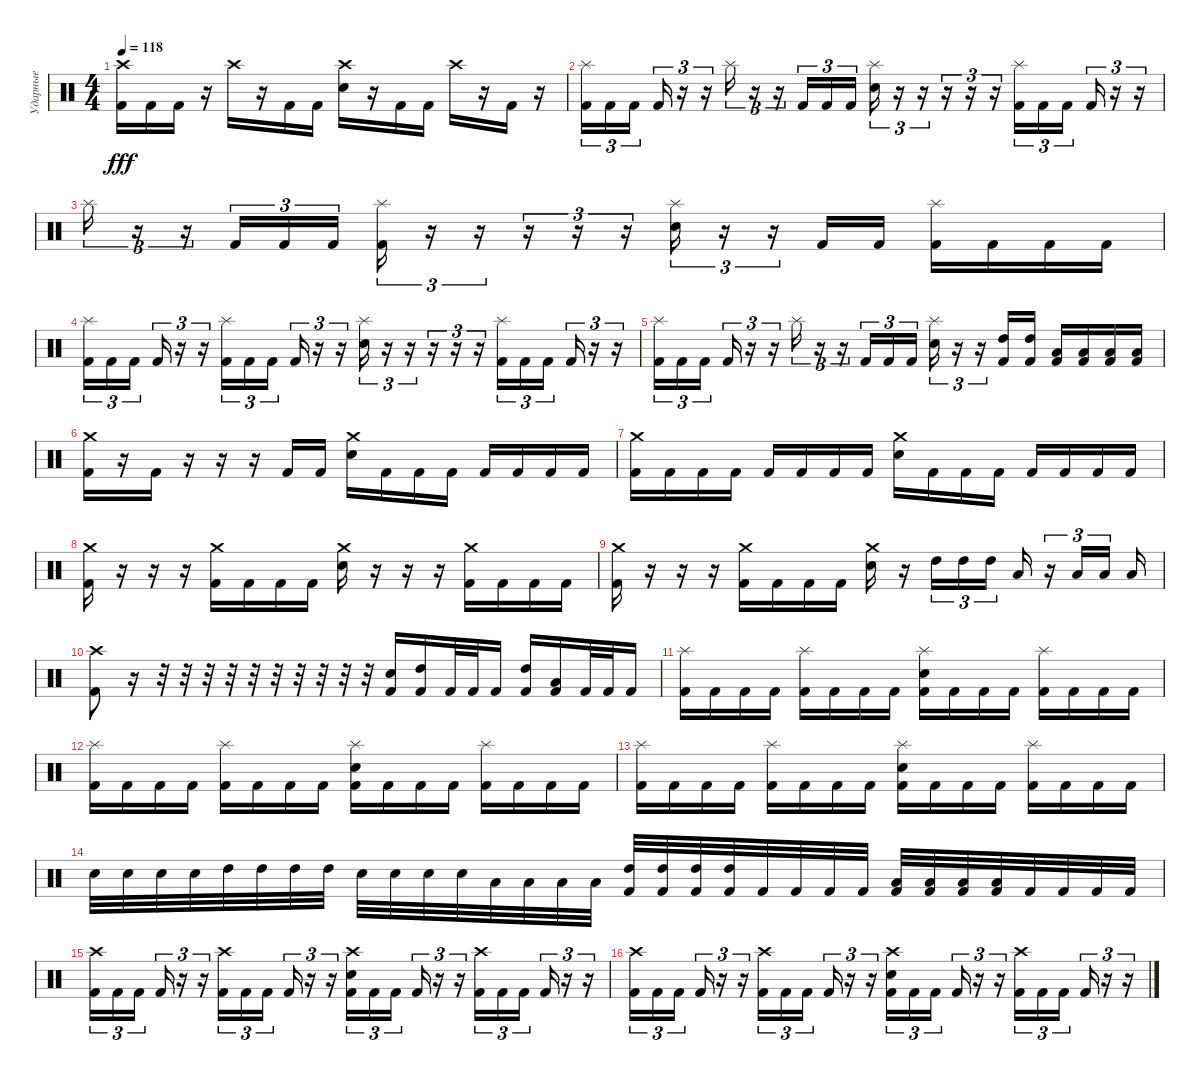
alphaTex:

\track ("Ударные" "Ударные") {instrument percussion}
\staff {score}
\articulation defaults
\ts (4 4)
\tempo 118
\clef neutral
\ks c
("Crash high (hit)" "Kick (hit) 2").16{dy fff} "Kick (hit) 2".16 "Kick (hit) 2".16 r.16 "Crash high (hit)".16 r.16 "Kick (hit) 2".16 "Kick (hit) 2".16 ("Crash high (hit)" "Electric Snare (hit)").16 r.16 "Kick (hit) 2".16 "Kick (hit) 2".16 "Crash high (hit)".16 r.16 "Kick (hit) 2".16 r.16 |
("Splash (hit)" "Kick (hit) 2").16{tu (3 2)} "Kick (hit) 2".16{tu (3 2)} "Kick (hit) 2".16{tu (3 2) beam splitsecondary} "Kick (hit) 2".16{tu (3 2)} r.16{tu (3 2)} r.16{tu (3 2)} "Splash (hit)".16{tu (3 2)} r.16{tu (3 2)} r.16{tu (3 2)} "Kick (hit) 2".16{tu (3 2)} "Kick (hit) 2".16{tu (3 2)} "Kick (hit) 2".16{tu (3 2)} ("Splash (hit)" "Electric Snare (hit)").16{tu (3 2)} r.16{tu (3 2)} r.16{tu (3 2)} r.16{tu (3 2)} r.16{tu (3 2)} r.16{tu (3 2)} ("Splash (hit)" "Kick (hit) 2").16{tu (3 2)} "Kick (hit) 2".16{tu (3 2)} "Kick (hit) 2".16{tu (3 2) beam splitsecondary} "Kick (hit) 2".16{tu (3 2)} r.16{tu (3 2)} r.16{tu (3 2)} |
"Splash (hit)".16{tu (3 2)} r.16{tu (3 2)} r.16{tu (3 2)} "Kick (hit) 2".16{tu (3 2)} "Kick (hit) 2".16{tu (3 2)} "Kick (hit) 2".16{tu (3 2)} ("Splash (hit)" "Kick (hit) 2").16{tu (3 2)} r.16{tu (3 2)} r.16{tu (3 2)} r.16{tu (3 2)} r.16{tu (3 2)} r.16{tu (3 2)} ("Splash (hit)" "Electric Snare (hit)").16{tu (3 2)} r.16{tu (3 2)} r.16{tu (3 2)} "Kick (hit) 2".16 "Kick (hit) 2".16 ("Splash (hit)" "Kick (hit) 2").16 "Kick (hit) 2".16 "Kick (hit) 2".16 "Kick (hit) 2".16 |
("Splash (hit)" "Kick (hit) 2").16{tu (3 2)} "Kick (hit) 2".16{tu (3 2)} "Kick (hit) 2".16{tu (3 2) beam splitsecondary} "Kick (hit) 2".16{tu (3 2)} r.16{tu (3 2)} r.16{tu (3 2)} ("Splash (hit)" "Kick (hit) 2").16{tu (3 2)} "Kick (hit) 2".16{tu (3 2)} "Kick (hit) 2".16{tu (3 2) beam splitsecondary} "Kick (hit) 2".16{tu (3 2)} r.16{tu (3 2)} r.16{tu (3 2)} ("Splash (hit)" "Electric Snare (hit)").16{tu (3 2)} r.16{tu (3 2)} r.16{tu (3 2)} r.16{tu (3 2)} r.16{tu (3 2)} r.16{tu (3 2)} ("Splash (hit)" "Kick (hit) 2").16{tu (3 2)} "Kick (hit) 2".16{tu (3 2)} "Kick (hit) 2".16{tu (3 2) beam splitsecondary} "Kick (hit) 2".16{tu (3 2)} r.16{tu (3 2)} r.16{tu (3 2)} |
("Splash (hit)" "Kick (hit) 2").16{tu (3 2)} "Kick (hit) 2".16{tu (3 2)} "Kick (hit) 2".16{tu (3 2) beam splitsecondary} "Kick (hit) 2".16{tu (3 2)} r.16{tu (3 2)} r.16{tu (3 2)} "Splash (hit)".16{tu (3 2)} r.16{tu (3 2)} r.16{tu (3 2)} "Kick (hit) 2".16{tu (3 2)} "Kick (hit) 2".16{tu (3 2)} "Kick (hit) 2".16{tu (3 2)} ("Splash (hit)" "Electric Snare (hit)").16{tu (3 2)} r.16{tu (3 2)} r.16{tu (3 2)} ("High Tom (hit)" "Kick (hit) 2").16 ("High Tom (hit)" "Kick (hit) 2").16 ("Low Tom (hit)" "Kick (hit) 2").16 ("Low Tom (hit)" "Kick (hit) 2").16 ("Low Floor Tom (hit)" "Kick (hit) 2").16 ("Low Floor Tom (hit)" "Kick (hit) 2").16 |
("Crash medium (hit)" "Kick (hit) 2").16 r.16 "Kick (hit) 2".16 r.16 r.16 r.16 "Kick (hit) 2".16 "Kick (hit) 2".16 ("Crash medium (hit)" "Electric Snare (hit)").16 "Kick (hit) 2".16 "Kick (hit) 2".16 "Kick (hit) 2".16 "Kick (hit) 2".16 "Kick (hit) 2".16 "Kick (hit) 2".16 "Kick (hit) 2".16 |
("Crash medium (hit)" "Kick (hit) 2").16 "Kick (hit) 2".16 "Kick (hit) 2".16 "Kick (hit) 2".16 "Kick (hit) 2".16 "Kick (hit) 2".16 "Kick (hit) 2".16 "Kick (hit) 2".16 ("Crash medium (hit)" "Electric Snare (hit)").16 "Kick (hit) 2".16 "Kick (hit) 2".16 "Kick (hit) 2".16 "Kick (hit) 2".16 "Kick (hit) 2".16 "Kick (hit) 2".16 "Kick (hit) 2".16 |
("Crash medium (hit)" "Kick (hit) 2").16 r.16 r.16 r.16 ("Crash medium (hit)" "Kick (hit) 2").16 "Kick (hit) 2".16 "Kick (hit) 2".16 "Kick (hit) 2".16 ("Crash medium (hit)" "Electric Snare (hit)").16 r.16 r.16 r.16 ("Crash medium (hit)" "Kick (hit) 2").16 "Kick (hit) 2".16 "Kick (hit) 2".16 "Kick (hit) 2".16 |
("Crash medium (hit)" "Kick (hit) 2").16 r.16 r.16 r.16 ("Crash medium (hit)" "Kick (hit) 2").16 "Kick (hit) 2".16 "Kick (hit) 2".16 "Kick (hit) 2".16 ("Crash medium (hit)" "Electric Snare (hit)").16 r.16 "High Tom (hit)".16{tu (3 2)} "High Tom (hit)".16{tu (3 2)} "High Tom (hit)".16{tu (3 2)} "Low Tom (hit)".16 r.16{tu (3 2)} "Low Tom (hit)".16{tu (3 2)} "Low Tom (hit)".16{tu (3 2) beam splitsecondary} "Low Tom (hit)".16 |
("Crash high (hit)" "Kick (hit) 2").8 r.16 r.32 r.32 r.32 r.32 r.32 r.32 r.32 r.32 r.32 r.32 ("Electric Snare (hit)" "Kick (hit) 2").16 ("High Tom (hit)" "Kick (hit) 2").16 "Kick (hit) 2".32 "Kick (hit) 2".32 "Kick (hit) 2".16 ("High Tom (hit)" "Kick (hit) 2").16 ("Low Tom (hit)" "Kick (hit) 2").16 "Kick (hit) 2".32 "Kick (hit) 2".32 "Kick (hit) 2".16 |
("Splash (hit)" "Kick (hit) 2").16 "Kick (hit) 2".16 "Kick (hit) 2".16 "Kick (hit) 2".16 ("Splash (hit)" "Kick (hit) 2").16 "Kick (hit) 2".16 "Kick (hit) 2".16 "Kick (hit) 2".16 ("Splash (hit)" "Electric Snare (hit)" "Kick (hit) 2").16 "Kick (hit) 2".16 "Kick (hit) 2".16 "Kick (hit) 2".16 ("Splash (hit)" "Kick (hit) 2").16 "Kick (hit) 2".16 "Kick (hit) 2".16 "Kick (hit) 2".16 |
("Splash (hit)" "Kick (hit) 2").16 "Kick (hit) 2".16 "Kick (hit) 2".16 "Kick (hit) 2".16 ("Splash (hit)" "Kick (hit) 2").16 "Kick (hit) 2".16 "Kick (hit) 2".16 "Kick (hit) 2".16 ("Splash (hit)" "Electric Snare (hit)" "Kick (hit) 2").16 "Kick (hit) 2".16 "Kick (hit) 2".16 "Kick (hit) 2".16 ("Splash (hit)" "Kick (hit) 2").16 "Kick (hit) 2".16 "Kick (hit) 2".16 "Kick (hit) 2".16 |
("Splash (hit)" "Kick (hit) 2").16 "Kick (hit) 2".16 "Kick (hit) 2".16 "Kick (hit) 2".16 ("Splash (hit)" "Kick (hit) 2").16 "Kick (hit) 2".16 "Kick (hit) 2".16 "Kick (hit) 2".16 ("Splash (hit)" "Electric Snare (hit)" "Kick (hit) 2").16 "Kick (hit) 2".16 "Kick (hit) 2".16 "Kick (hit) 2".16 ("Splash (hit)" "Kick (hit) 2").16 "Kick (hit) 2".16 "Kick (hit) 2".16 "Kick (hit) 2".16 |
"Electric Snare (hit)".32 "Electric Snare (hit)".32 "Electric Snare (hit)".32 "Electric Snare (hit)".32 "High Tom (hit)".32 "High Tom (hit)".32 "High Tom (hit)".32 "High Tom (hit)".32 "Electric Snare (hit)".32 "Electric Snare (hit)".32 "Electric Snare (hit)".32 "Electric Snare (hit)".32 "Low Tom (hit)".32 "Low Tom (hit)".32 "Low Tom (hit)".32 "Low Tom (hit)".32 ("High Tom (hit)" "Kick (hit) 2").32 ("High Tom (hit)" "Kick (hit) 2").32 ("High Tom (hit)" "Kick (hit) 2").32 ("High Tom (hit)" "Kick (hit) 2").32 "Kick (hit) 2".32 "Kick (hit) 2".32 "Kick (hit) 2".32 "Kick (hit) 2".32 ("Low Tom (hit)" "Kick (hit) 2").32 ("Low Tom (hit)" "Kick (hit) 2").32 ("Low Tom (hit)" "Kick (hit) 2").32 ("Low Tom (hit)" "Kick (hit) 2").32 "Kick (hit) 2".32 "Kick (hit) 2".32 "Kick (hit) 2".32 "Kick (hit) 2".32 |
("Crash high (hit)" "Kick (hit) 2").16{tu (3 2)} "Kick (hit) 2".16{tu (3 2)} "Kick (hit) 2".16{tu (3 2) beam splitsecondary} "Kick (hit) 2".16{tu (3 2)} r.16{tu (3 2)} r.16{tu (3 2)} ("Crash high (hit)" "Kick (hit) 2").16{tu (3 2)} "Kick (hit) 2".16{tu (3 2)} "Kick (hit) 2".16{tu (3 2) beam splitsecondary} "Kick (hit) 2".16{tu (3 2)} r.16{tu (3 2)} r.16{tu (3 2)} ("Crash high (hit)" "Electric Snare (hit)" "Kick (hit) 2").16{tu (3 2)} "Kick (hit) 2".16{tu (3 2)} "Kick (hit) 2".16{tu (3 2) beam splitsecondary} "Kick (hit) 2".16{tu (3 2)} r.16{tu (3 2)} r.16{tu (3 2)} ("Crash high (hit)" "Kick (hit) 2").16{tu (3 2)} "Kick (hit) 2".16{tu (3 2)} "Kick (hit) 2".16{tu (3 2) beam splitsecondary} "Kick (hit) 2".16{tu (3 2)} r.16{tu (3 2)} r.16{tu (3 2)} |
("Crash high (hit)" "Kick (hit) 2").16{tu (3 2)} "Kick (hit) 2".16{tu (3 2)} "Kick (hit) 2".16{tu (3 2) beam splitsecondary} "Kick (hit) 2".16{tu (3 2)} r.16{tu (3 2)} r.16{tu (3 2)} ("Crash high (hit)" "Kick (hit) 2").16{tu (3 2)} "Kick (hit) 2".16{tu (3 2)} "Kick (hit) 2".16{tu (3 2) beam splitsecondary} "Kick (hit) 2".16{tu (3 2)} r.16{tu (3 2)} r.16{tu (3 2)} ("Crash high (hit)" "Electric Snare (hit)" "Kick (hit) 2").16{tu (3 2)} "Kick (hit) 2".16{tu (3 2)} "Kick (hit) 2".16{tu (3 2) beam splitsecondary} "Kick (hit) 2".16{tu (3 2)} r.16{tu (3 2)} r.16{tu (3 2)} ("Crash high (hit)" "Kick (hit) 2").16{tu (3 2)} "Kick (hit) 2".16{tu (3 2)} "Kick (hit) 2".16{tu (3 2) beam splitsecondary} "Kick (hit) 2".16{tu (3 2)} r.16{tu (3 2)} r.16{tu (3 2)}
